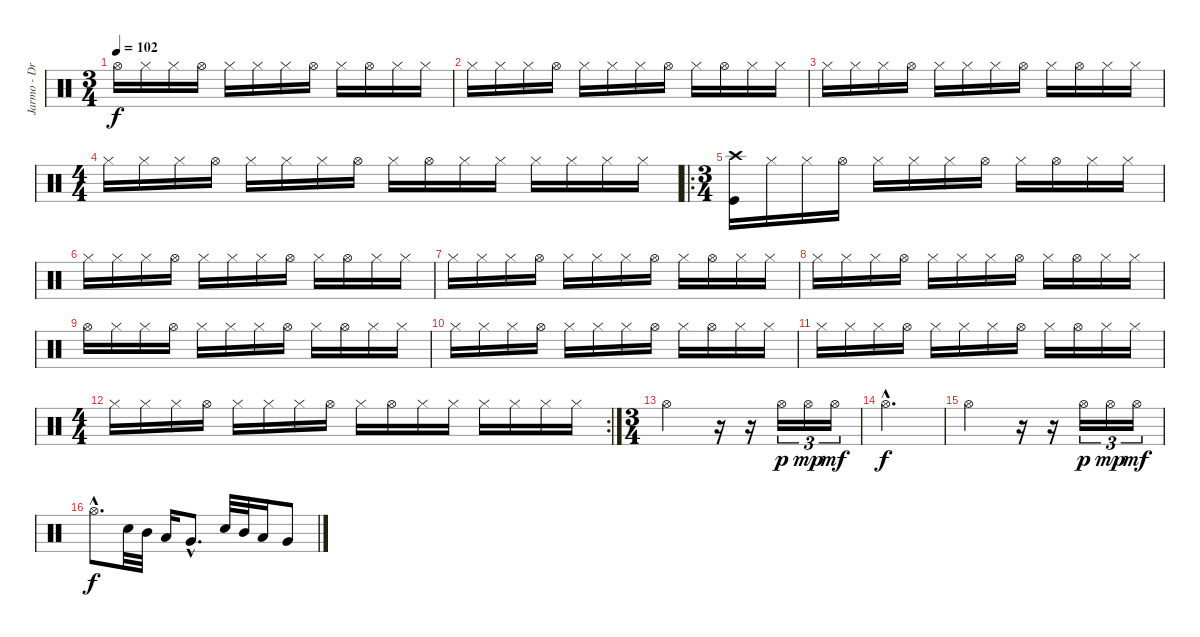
\track ("Jarmo - Drums" "Jarmo - Dr") {instrument percussion}
\staff {score}
\articulation defaults
\ts (3 4)
\tempo 102
\clef neutral
\ks c "Hi-Hat (open)".16{dy f volume 15} "Hi-Hat (closed)".16 "Hi-Hat (closed)".16 "Hi-Hat (open)".16 "Hi-Hat (closed)".16 "Hi-Hat (closed)".16 "Hi-Hat (closed)".16 "Hi-Hat (open)".16 "Hi-Hat (closed)".16 "Hi-Hat (open)".16 "Hi-Hat (closed)".16 "Hi-Hat (closed)".16
|
"Hi-Hat (closed)".16 "Hi-Hat (closed)".16 "Hi-Hat (closed)".16 "Hi-Hat (open)".16 "Hi-Hat (closed)".16 "Hi-Hat (closed)".16 "Hi-Hat (closed)".16 "Hi-Hat (open)".16 "Hi-Hat (closed)".16 "Hi-Hat (open)".16 "Hi-Hat (closed)".16 "Hi-Hat (closed)".16 |
"Hi-Hat (closed)".16 "Hi-Hat (closed)".16 "Hi-Hat (closed)".16 "Hi-Hat (open)".16 "Hi-Hat (closed)".16 "Hi-Hat (closed)".16 "Hi-Hat (closed)".16 "Hi-Hat (open)".16 "Hi-Hat (closed)".16 "Hi-Hat (open)".16 "Hi-Hat (closed)".16 "Hi-Hat (closed)".16 |
\ts (4 4)
"Hi-Hat (closed)".16 "Hi-Hat (closed)".16 "Hi-Hat (closed)".16 "Hi-Hat (open)".16 "Hi-Hat (closed)".16 "Hi-Hat (closed)".16 "Hi-Hat (closed)".16 "Hi-Hat (open)".16 "Hi-Hat (closed)".16 "Hi-Hat (open)".16 "Hi-Hat (closed)".16 "Hi-Hat (closed)".16 "Hi-Hat (closed)".16 "Hi-Hat (closed)".16 "Hi-Hat (closed)".16 "Hi-Hat (closed)".16 |
\ro
\ts (3 4)
("Crash high (hit)" "Kick (hit)").16 "Hi-Hat (closed)".16 "Hi-Hat (closed)".16 "Hi-Hat (open)".16 "Hi-Hat (closed)".16 "Hi-Hat (closed)".16 "Hi-Hat (closed)".16 "Hi-Hat (open)".16 "Hi-Hat (closed)".16 "Hi-Hat (open)".16 "Hi-Hat (closed)".16 "Hi-Hat (closed)".16 |
"Hi-Hat (closed)".16 "Hi-Hat (closed)".16 "Hi-Hat (closed)".16 "Hi-Hat (open)".16 "Hi-Hat (closed)".16 "Hi-Hat (closed)".16 "Hi-Hat (closed)".16 "Hi-Hat (open)".16 "Hi-Hat (closed)".16 "Hi-Hat (open)".16 "Hi-Hat (closed)".16 "Hi-Hat (closed)".16 |
"Hi-Hat (closed)".16 "Hi-Hat (closed)".16 "Hi-Hat (closed)".16 "Hi-Hat (open)".16 "Hi-Hat (closed)".16 "Hi-Hat (closed)".16 "Hi-Hat (closed)".16 "Hi-Hat (open)".16 "Hi-Hat (closed)".16 "Hi-Hat (open)".16 "Hi-Hat (closed)".16 "Hi-Hat (closed)".16 |
"Hi-Hat (closed)".16 "Hi-Hat (closed)".16 "Hi-Hat (closed)".16 "Hi-Hat (open)".16 "Hi-Hat (closed)".16 "Hi-Hat (closed)".16 "Hi-Hat (closed)".16 "Hi-Hat (open)".16 "Hi-Hat (closed)".16 "Hi-Hat (open)".16 "Hi-Hat (closed)".16 "Hi-Hat (closed)".16 |
"Hi-Hat (open)".16 "Hi-Hat (closed)".16 "Hi-Hat (closed)".16 "Hi-Hat (open)".16 "Hi-Hat (closed)".16 "Hi-Hat (closed)".16 "Hi-Hat (closed)".16 "Hi-Hat (open)".16 "Hi-Hat (closed)".16 "Hi-Hat (open)".16 "Hi-Hat (closed)".16 "Hi-Hat (closed)".16 |
"Hi-Hat (closed)".16 "Hi-Hat (closed)".16 "Hi-Hat (closed)".16 "Hi-Hat (open)".16 "Hi-Hat (closed)".16 "Hi-Hat (closed)".16 "Hi-Hat (closed)".16 "Hi-Hat (open)".16 "Hi-Hat (closed)".16 "Hi-Hat (open)".16 "Hi-Hat (closed)".16 "Hi-Hat (closed)".16 |
"Hi-Hat (closed)".16 "Hi-Hat (closed)".16 "Hi-Hat (closed)".16 "Hi-Hat (open)".16 "Hi-Hat (closed)".16 "Hi-Hat (closed)".16 "Hi-Hat (closed)".16 "Hi-Hat (open)".16 "Hi-Hat (closed)".16 "Hi-Hat (open)".16 "Hi-Hat (closed)".16 "Hi-Hat (closed)".16 |
\rc 2
\ts (4 4)
"Hi-Hat (closed)".16 "Hi-Hat (closed)".16 "Hi-Hat (closed)".16 "Hi-Hat (open)".16 "Hi-Hat (closed)".16 "Hi-Hat (closed)".16 "Hi-Hat (closed)".16 "Hi-Hat (open)".16 "Hi-Hat (closed)".16 "Hi-Hat (open)".16 "Hi-Hat (closed)".16 "Hi-Hat (closed)".16 "Hi-Hat (closed)".16 "Hi-Hat (closed)".16 "Hi-Hat (closed)".16 "Hi-Hat (closed)".16 |
\ts (3 4)
"Hi-Hat (open)".2 r.16 r.16 "Hi-Hat (open)".16{tu (3 2) dy p} "Hi-Hat (open)".16{tu (3 2) dy mp} "Hi-Hat (open)".16{tu (3 2) dy mf} |
"Hi-Hat (open)"{hac}.2{d dy f} |
"Hi-Hat (open)".2 r.16 r.16 "Hi-Hat (open)".16{tu (3 2) dy p} "Hi-Hat (open)".16{tu (3 2) dy mp} "Hi-Hat (open)".16{tu (3 2) dy mf} |
"Hi-Hat (open)"{hac}.8{d dy f} "Electric Snare (hit)".32 "Mid Tom (hit)".32 "Low Tom (hit)".16 "Very Low Tom (hit)"{hac}.8{d} "Electric Snare (hit)".32 "Mid Tom (hit)".32 "Low Tom (hit)".16 "Very Low Tom (hit)".8
